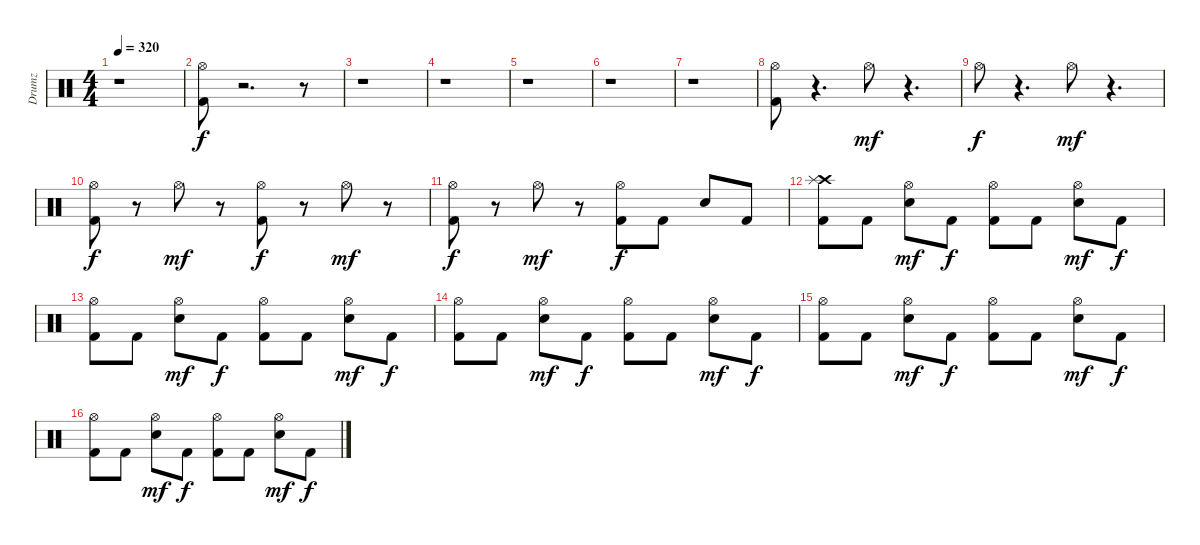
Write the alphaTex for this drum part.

\track ("Drumz" "Drumz") {instrument percussion}
\staff {score}
\articulation defaults
\ts (4 4)
\tempo 320
\clef neutral
\ks c
r.1{dy f} |
("Hi-Hat (open)" "Kick (hit) 2").8 r.2{d} r.8 |
r.1 |
r.1 |
r.1 |
r.1 |
r.1 |
("Hi-Hat (open)" "Kick (hit) 2").8 r.4{d} "Hi-Hat (open)".8{dy mf} r.4{d} |
"Hi-Hat (open)".8{dy f} r.4{d} "Hi-Hat (open)".8{dy mf} r.4{d} |
("Kick (hit) 2" "Hi-Hat (open)").8{dy f} r.8 "Hi-Hat (open)".8{dy mf} r.8 ("Kick (hit) 2" "Hi-Hat (open)").8{dy f} r.8 "Hi-Hat (open)".8{dy mf} r.8 |
("Hi-Hat (open)" "Kick (hit) 2").8{dy f} r.8 "Hi-Hat (open)".8{dy mf} r.8 ("Hi-Hat (open)" "Kick (hit) 2").8{dy f} "Kick (hit) 2".8 "Snare (hit) 2".8 "Kick (hit) 2".8 |
("Crash high (hit)" "Splash (hit)" "Kick (hit) 2").8 "Kick (hit) 2".8 ("Snare (hit) 2" "Hi-Hat (open)").8{dy mf} "Kick (hit) 2".8{dy f} ("Kick (hit) 2" "Hi-Hat (open)").8 "Kick (hit) 2".8 ("Snare (hit) 2" "Hi-Hat (open)").8{dy mf} "Kick (hit) 2".8{dy f} |
("Hi-Hat (open)" "Kick (hit) 2").8 "Kick (hit) 2".8 ("Snare (hit) 2" "Hi-Hat (open)").8{dy mf} "Kick (hit) 2".8{dy f} ("Kick (hit) 2" "Hi-Hat (open)").8 "Kick (hit) 2".8 ("Snare (hit) 2" "Hi-Hat (open)").8{dy mf} "Kick (hit) 2".8{dy f} |
("Hi-Hat (open)" "Kick (hit) 2").8 "Kick (hit) 2".8 ("Snare (hit) 2" "Hi-Hat (open)").8{dy mf} "Kick (hit) 2".8{dy f} ("Kick (hit) 2" "Hi-Hat (open)").8 "Kick (hit) 2".8 ("Snare (hit) 2" "Hi-Hat (open)").8{dy mf} "Kick (hit) 2".8{dy f} |
("Hi-Hat (open)" "Kick (hit) 2").8 "Kick (hit) 2".8 ("Snare (hit) 2" "Hi-Hat (open)").8{dy mf} "Kick (hit) 2".8{dy f} ("Kick (hit) 2" "Hi-Hat (open)").8 "Kick (hit) 2".8 ("Snare (hit) 2" "Hi-Hat (open)").8{dy mf} "Kick (hit) 2".8{dy f} |
("Hi-Hat (open)" "Kick (hit) 2").8 "Kick (hit) 2".8 ("Snare (hit) 2" "Hi-Hat (open)").8{dy mf} "Kick (hit) 2".8{dy f} ("Kick (hit) 2" "Hi-Hat (open)").8 "Kick (hit) 2".8 ("Snare (hit) 2" "Hi-Hat (open)").8{dy mf} "Kick (hit) 2".8{dy f}
